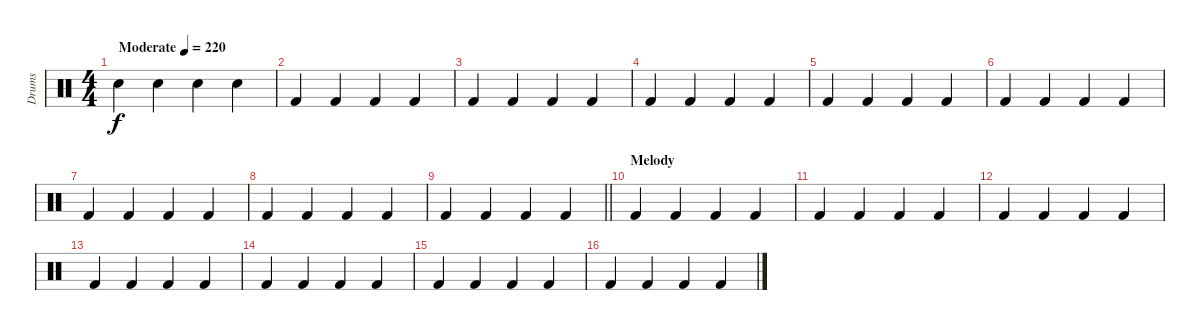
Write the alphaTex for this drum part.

\track ("Drums" "Drums") {instrument percussion}
\staff {score}
\articulation defaults
\ts (4 4)
\tempo (220 "Moderate")
\clef neutral
\ks c "Snare (hit) 2".4{dy f} "Snare (hit) 2".4 "Snare (hit) 2".4 "Snare (hit) 2".4
|
"Kick (hit) 2".4 "Kick (hit) 2".4 "Kick (hit) 2".4 "Kick (hit) 2".4 |
"Kick (hit) 2".4 "Kick (hit) 2".4 "Kick (hit) 2".4 "Kick (hit) 2".4 |
"Kick (hit) 2".4 "Kick (hit) 2".4 "Kick (hit) 2".4 "Kick (hit) 2".4 |
"Kick (hit) 2".4 "Kick (hit) 2".4 "Kick (hit) 2".4 "Kick (hit) 2".4 |
"Kick (hit) 2".4 "Kick (hit) 2".4 "Kick (hit) 2".4 "Kick (hit) 2".4 |
"Kick (hit) 2".4 "Kick (hit) 2".4 "Kick (hit) 2".4 "Kick (hit) 2".4 |
"Kick (hit) 2".4 "Kick (hit) 2".4 "Kick (hit) 2".4 "Kick (hit) 2".4 |
\barLineRight lightlight "Kick (hit) 2".4 "Kick (hit) 2".4 "Kick (hit) 2".4 "Kick (hit) 2".4
|
\section ("" "Melody")
"Kick (hit) 2".4 "Kick (hit) 2".4 "Kick (hit) 2".4 "Kick (hit) 2".4 |
"Kick (hit) 2".4 "Kick (hit) 2".4 "Kick (hit) 2".4 "Kick (hit) 2".4 |
"Kick (hit) 2".4 "Kick (hit) 2".4 "Kick (hit) 2".4 "Kick (hit) 2".4 |
"Kick (hit) 2".4 "Kick (hit) 2".4 "Kick (hit) 2".4 "Kick (hit) 2".4 |
"Kick (hit) 2".4 "Kick (hit) 2".4 "Kick (hit) 2".4 "Kick (hit) 2".4 |
"Kick (hit) 2".4 "Kick (hit) 2".4 "Kick (hit) 2".4 "Kick (hit) 2".4 |
"Kick (hit) 2".4 "Kick (hit) 2".4 "Kick (hit) 2".4 "Kick (hit) 2".4
